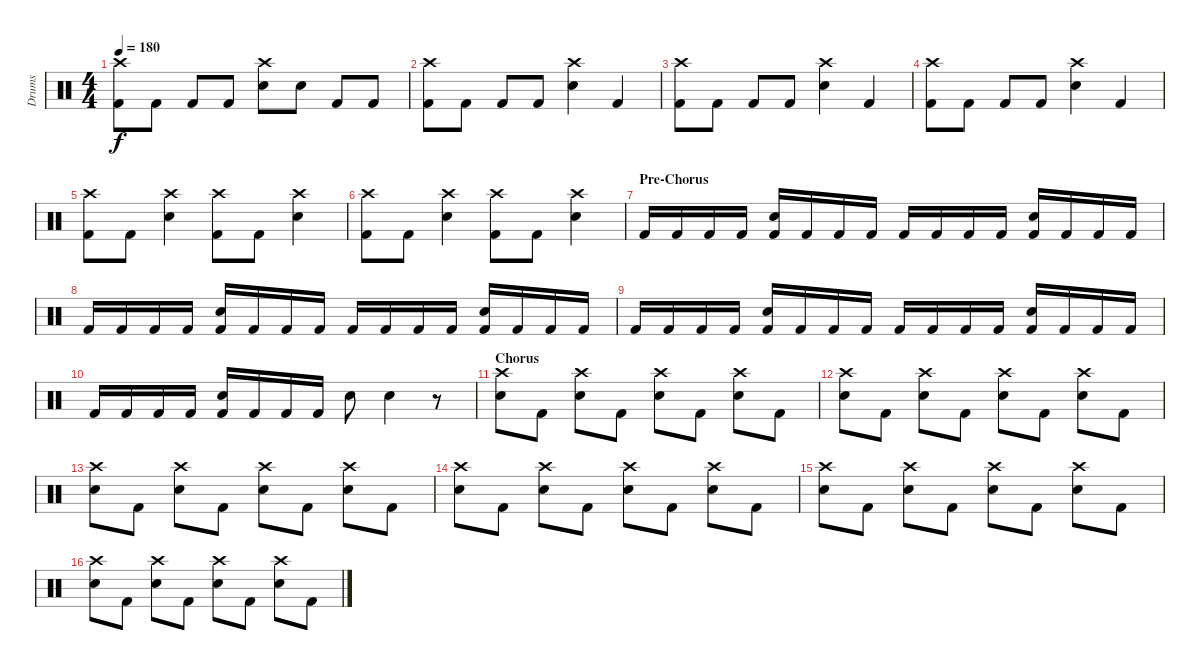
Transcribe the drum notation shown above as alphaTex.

\track ("Drums" "Drums") {instrument percussion}
\staff {score}
\articulation defaults
\ts (4 4)
\tempo 180
\clef neutral
\ks c
("Crash high (hit)" "Kick (hit) 2").8{dy f} "Kick (hit) 2".8 "Kick (hit) 2".8 "Kick (hit) 2".8 ("Crash high (hit)" "Snare (hit) 2").8 "Snare (hit) 2".8 "Kick (hit) 2".8 "Kick (hit) 2".8 |
("Crash high (hit)" "Kick (hit) 2").8 "Kick (hit) 2".8 "Kick (hit) 2".8 "Kick (hit) 2".8 ("Crash high (hit)" "Snare (hit) 2").4 "Kick (hit) 2".4 |
("Crash high (hit)" "Kick (hit) 2").8 "Kick (hit) 2".8 "Kick (hit) 2".8 "Kick (hit) 2".8 ("Crash high (hit)" "Snare (hit) 2").4 "Kick (hit) 2".4 |
("Crash high (hit)" "Kick (hit) 2").8 "Kick (hit) 2".8 "Kick (hit) 2".8 "Kick (hit) 2".8 ("Crash high (hit)" "Snare (hit) 2").4 "Kick (hit) 2".4 |
("Crash high (hit)" "Kick (hit) 2").8 "Kick (hit) 2".8 ("Crash high (hit)" "Snare (hit) 2").4 ("Crash high (hit)" "Kick (hit) 2").8 "Kick (hit) 2".8 ("Crash high (hit)" "Snare (hit) 2").4 |
("Crash high (hit)" "Kick (hit) 2").8 "Kick (hit) 2".8 ("Crash high (hit)" "Snare (hit) 2").4 ("Crash high (hit)" "Kick (hit) 2").8 "Kick (hit) 2".8 ("Crash high (hit)" "Snare (hit) 2").4 |
\section ("" "Pre-Chorus")
"Kick (hit) 2".16 "Kick (hit) 2".16 "Kick (hit) 2".16 "Kick (hit) 2".16 ("Snare (hit) 2" "Kick (hit) 2").16 "Kick (hit) 2".16 "Kick (hit) 2".16 "Kick (hit) 2".16 "Kick (hit) 2".16 "Kick (hit) 2".16 "Kick (hit) 2".16 "Kick (hit) 2".16 ("Snare (hit) 2" "Kick (hit) 2").16 "Kick (hit) 2".16 "Kick (hit) 2".16 "Kick (hit) 2".16 |
"Kick (hit) 2".16 "Kick (hit) 2".16 "Kick (hit) 2".16 "Kick (hit) 2".16 ("Snare (hit) 2" "Kick (hit) 2").16 "Kick (hit) 2".16 "Kick (hit) 2".16 "Kick (hit) 2".16 "Kick (hit) 2".16 "Kick (hit) 2".16 "Kick (hit) 2".16 "Kick (hit) 2".16 ("Snare (hit) 2" "Kick (hit) 2").16 "Kick (hit) 2".16 "Kick (hit) 2".16 "Kick (hit) 2".16 |
"Kick (hit) 2".16 "Kick (hit) 2".16 "Kick (hit) 2".16 "Kick (hit) 2".16 ("Snare (hit) 2" "Kick (hit) 2").16 "Kick (hit) 2".16 "Kick (hit) 2".16 "Kick (hit) 2".16 "Kick (hit) 2".16 "Kick (hit) 2".16 "Kick (hit) 2".16 "Kick (hit) 2".16 ("Snare (hit) 2" "Kick (hit) 2").16 "Kick (hit) 2".16 "Kick (hit) 2".16 "Kick (hit) 2".16 |
"Kick (hit) 2".16 "Kick (hit) 2".16 "Kick (hit) 2".16 "Kick (hit) 2".16 ("Snare (hit) 2" "Kick (hit) 2").16 "Kick (hit) 2".16 "Kick (hit) 2".16 "Kick (hit) 2".16 "Snare (hit) 2".8 "Snare (hit) 2".4 r.8 |
\section ("" "Chorus")
("Crash high (hit)" "Snare (hit) 2").8 "Kick (hit) 2".8 ("Crash high (hit)" "Snare (hit) 2").8 "Kick (hit) 2".8 ("Crash high (hit)" "Snare (hit) 2").8 "Kick (hit) 2".8 ("Crash high (hit)" "Snare (hit) 2").8 "Kick (hit) 2".8 |
("Crash high (hit)" "Snare (hit) 2").8 "Kick (hit) 2".8 ("Crash high (hit)" "Snare (hit) 2").8 "Kick (hit) 2".8 ("Crash high (hit)" "Snare (hit) 2").8 "Kick (hit) 2".8 ("Crash high (hit)" "Snare (hit) 2").8 "Kick (hit) 2".8 |
("Crash high (hit)" "Snare (hit) 2").8 "Kick (hit) 2".8 ("Crash high (hit)" "Snare (hit) 2").8 "Kick (hit) 2".8 ("Crash high (hit)" "Snare (hit) 2").8 "Kick (hit) 2".8 ("Crash high (hit)" "Snare (hit) 2").8 "Kick (hit) 2".8 |
("Crash high (hit)" "Snare (hit) 2").8 "Kick (hit) 2".8 ("Crash high (hit)" "Snare (hit) 2").8 "Kick (hit) 2".8 ("Crash high (hit)" "Snare (hit) 2").8 "Kick (hit) 2".8 ("Crash high (hit)" "Snare (hit) 2").8 "Kick (hit) 2".8 |
("Crash high (hit)" "Snare (hit) 2").8 "Kick (hit) 2".8 ("Crash high (hit)" "Snare (hit) 2").8 "Kick (hit) 2".8 ("Crash high (hit)" "Snare (hit) 2").8 "Kick (hit) 2".8 ("Crash high (hit)" "Snare (hit) 2").8 "Kick (hit) 2".8 |
("Crash high (hit)" "Snare (hit) 2").8 "Kick (hit) 2".8 ("Crash high (hit)" "Snare (hit) 2").8 "Kick (hit) 2".8 ("Crash high (hit)" "Snare (hit) 2").8 "Kick (hit) 2".8 ("Crash high (hit)" "Snare (hit) 2").8 "Kick (hit) 2".8
